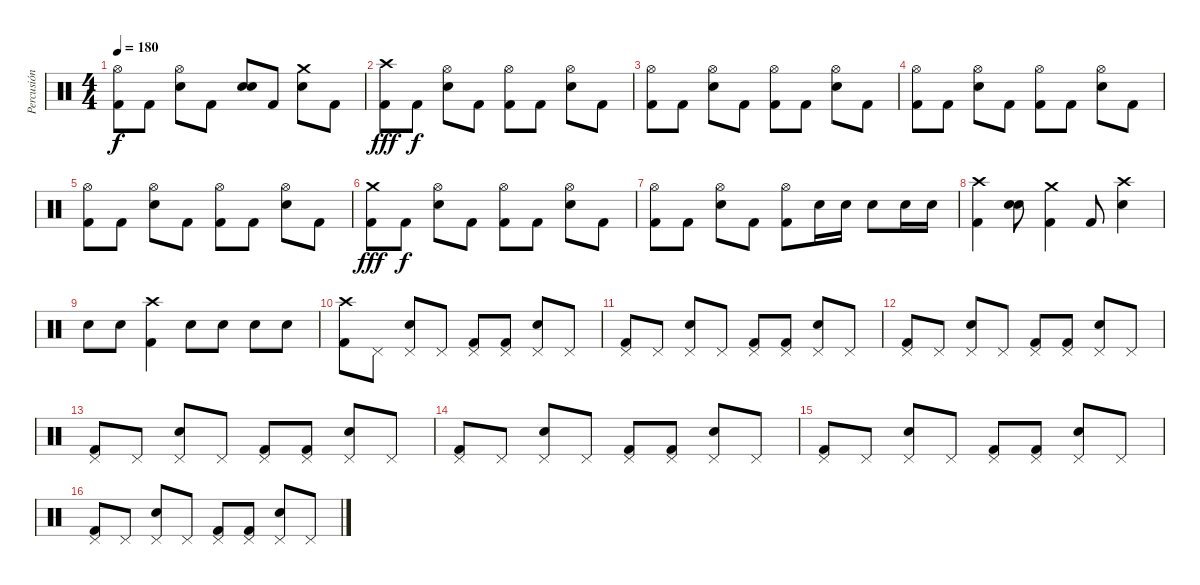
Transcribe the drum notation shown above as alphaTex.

\track ("Percusión" "Percusión") {instrument percussion}
\staff {score}
\articulation defaults
\ts (4 4)
\tempo 180
\clef neutral
\ks c
("Hi-Hat (open)" "Kick (hit) 2").8{dy f} "Kick (hit) 2".8 ("Hi-Hat (open)" "Electric Snare (hit)").8 "Kick (hit) 2".8 ("Electric Snare (hit)" "Electric Snare (hit)").8 "Kick (hit) 2".8 ("Crash medium (hit)" "Electric Snare (hit)").8 "Kick (hit) 2".8 |
("Crash high (hit)" "Kick (hit) 2").8{dy fff} "Kick (hit) 2".8{dy f} ("Hi-Hat (open)" "Electric Snare (hit)").8 "Kick (hit) 2".8 ("Hi-Hat (open)" "Kick (hit) 2").8 "Kick (hit) 2".8 ("Hi-Hat (open)" "Electric Snare (hit)").8 "Kick (hit) 2".8 |
("Hi-Hat (open)" "Kick (hit) 2").8 "Kick (hit) 2".8 ("Hi-Hat (open)" "Electric Snare (hit)").8 "Kick (hit) 2".8 ("Hi-Hat (open)" "Kick (hit) 2").8 "Kick (hit) 2".8 ("Hi-Hat (open)" "Electric Snare (hit)").8 "Kick (hit) 2".8 |
("Hi-Hat (open)" "Kick (hit) 2").8 "Kick (hit) 2".8 ("Hi-Hat (open)" "Electric Snare (hit)").8 "Kick (hit) 2".8 ("Hi-Hat (open)" "Kick (hit) 2").8 "Kick (hit) 2".8 ("Hi-Hat (open)" "Electric Snare (hit)").8 "Kick (hit) 2".8 |
("Hi-Hat (open)" "Kick (hit) 2").8 "Kick (hit) 2".8 ("Hi-Hat (open)" "Electric Snare (hit)").8 "Kick (hit) 2".8 ("Hi-Hat (open)" "Kick (hit) 2").8 "Kick (hit) 2".8 ("Hi-Hat (open)" "Electric Snare (hit)").8 "Kick (hit) 2".8 |
("Crash medium (hit)" "Kick (hit) 2").8{dy fff} "Kick (hit) 2".8{dy f} ("Hi-Hat (open)" "Electric Snare (hit)").8 "Kick (hit) 2".8 ("Hi-Hat (open)" "Kick (hit) 2").8 "Kick (hit) 2".8 ("Hi-Hat (open)" "Electric Snare (hit)").8 "Kick (hit) 2".8 |
("Hi-Hat (open)" "Kick (hit) 2").8 "Kick (hit) 2".8 ("Hi-Hat (open)" "Electric Snare (hit)").8 "Kick (hit) 2".8 ("Hi-Hat (open)" "Kick (hit) 2").8 "Electric Snare (hit)".16 "Electric Snare (hit)".16 "Electric Snare (hit)".8 "Electric Snare (hit)".16 "Electric Snare (hit)".16 |
("Crash high (hit)" "Kick (hit) 2").4 ("Electric Snare (hit)" "Electric Snare (hit)").8{bd 240} ("Crash medium (hit)" "Kick (hit) 2").4 "Kick (hit) 2".8 ("Crash high (hit)" "Electric Snare (hit)").4 |
"Electric Snare (hit)".8 "Electric Snare (hit)".8 ("Crash high (hit)" "Kick (hit) 2").4 "Electric Snare (hit)".8 "Electric Snare (hit)".8 "Electric Snare (hit)".8 "Electric Snare (hit)".8 |
("Crash high (hit)" "Kick (hit) 2").8 "Pedal Hi-Hat (hit)".8 ("Pedal Hi-Hat (hit)" "Electric Snare (hit)").8 "Pedal Hi-Hat (hit)".8 ("Pedal Hi-Hat (hit)" "Kick (hit) 2").8 ("Pedal Hi-Hat (hit)" "Kick (hit) 2").8 ("Pedal Hi-Hat (hit)" "Electric Snare (hit)").8 "Pedal Hi-Hat (hit)".8 |
("Pedal Hi-Hat (hit)" "Kick (hit) 2").8 "Pedal Hi-Hat (hit)".8 ("Pedal Hi-Hat (hit)" "Electric Snare (hit)").8 "Pedal Hi-Hat (hit)".8 ("Pedal Hi-Hat (hit)" "Kick (hit) 2").8 ("Pedal Hi-Hat (hit)" "Kick (hit) 2").8 ("Pedal Hi-Hat (hit)" "Electric Snare (hit)").8 "Pedal Hi-Hat (hit)".8 |
("Pedal Hi-Hat (hit)" "Kick (hit) 2").8 "Pedal Hi-Hat (hit)".8 ("Pedal Hi-Hat (hit)" "Electric Snare (hit)").8 "Pedal Hi-Hat (hit)".8 ("Pedal Hi-Hat (hit)" "Kick (hit) 2").8 ("Pedal Hi-Hat (hit)" "Kick (hit) 2").8 ("Pedal Hi-Hat (hit)" "Electric Snare (hit)").8 "Pedal Hi-Hat (hit)".8 |
("Pedal Hi-Hat (hit)" "Kick (hit) 2").8 "Pedal Hi-Hat (hit)".8 ("Pedal Hi-Hat (hit)" "Electric Snare (hit)").8 "Pedal Hi-Hat (hit)".8 ("Pedal Hi-Hat (hit)" "Kick (hit) 2").8 ("Pedal Hi-Hat (hit)" "Kick (hit) 2").8 ("Pedal Hi-Hat (hit)" "Electric Snare (hit)").8 "Pedal Hi-Hat (hit)".8 |
("Pedal Hi-Hat (hit)" "Kick (hit) 2").8 "Pedal Hi-Hat (hit)".8 ("Pedal Hi-Hat (hit)" "Electric Snare (hit)").8 "Pedal Hi-Hat (hit)".8 ("Pedal Hi-Hat (hit)" "Kick (hit) 2").8 ("Pedal Hi-Hat (hit)" "Kick (hit) 2").8 ("Pedal Hi-Hat (hit)" "Electric Snare (hit)").8 "Pedal Hi-Hat (hit)".8 |
("Pedal Hi-Hat (hit)" "Kick (hit) 2").8 "Pedal Hi-Hat (hit)".8 ("Pedal Hi-Hat (hit)" "Electric Snare (hit)").8 "Pedal Hi-Hat (hit)".8 ("Pedal Hi-Hat (hit)" "Kick (hit) 2").8 ("Pedal Hi-Hat (hit)" "Kick (hit) 2").8 ("Pedal Hi-Hat (hit)" "Electric Snare (hit)").8 "Pedal Hi-Hat (hit)".8 |
("Pedal Hi-Hat (hit)" "Kick (hit) 2").8 "Pedal Hi-Hat (hit)".8 ("Pedal Hi-Hat (hit)" "Electric Snare (hit)").8 "Pedal Hi-Hat (hit)".8 ("Pedal Hi-Hat (hit)" "Kick (hit) 2").8 ("Pedal Hi-Hat (hit)" "Kick (hit) 2").8 ("Pedal Hi-Hat (hit)" "Electric Snare (hit)").8 "Pedal Hi-Hat (hit)".8
